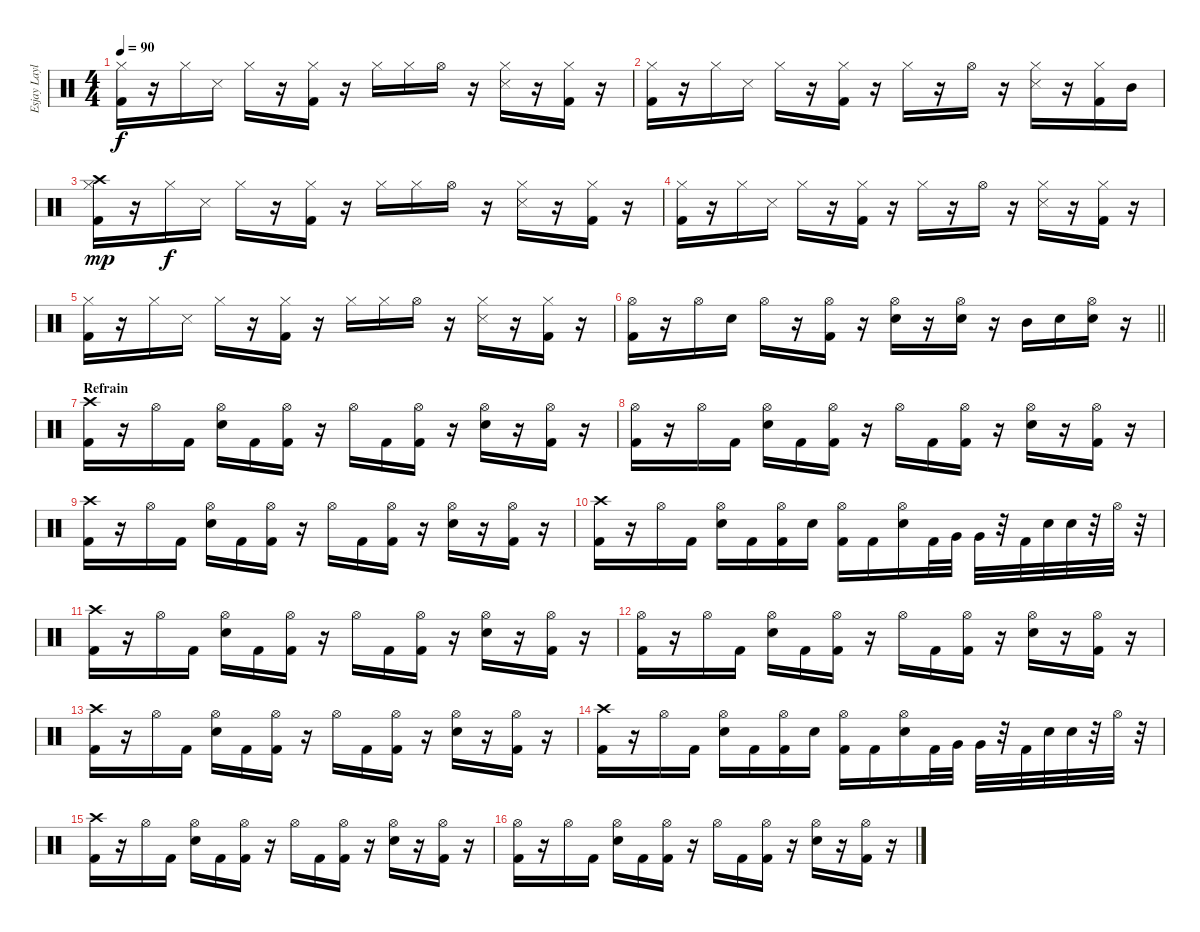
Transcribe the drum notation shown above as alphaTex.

\track ("Esjay Laylo's Drums" "Esjay Layl") {instrument percussion}
\staff {score}
\articulation defaults
\ts (4 4)
\tempo 90
\clef neutral
\ks c
("Hi-Hat (closed)" "Kick (hit) 2").16{dy f} r.16 "Hi-Hat (closed)".16 "Snare (side stick) 3".16 "Hi-Hat (closed)".16 r.16 ("Hi-Hat (closed)" "Kick (hit) 2").16 r.16 "Hi-Hat (closed)".16 "Hi-Hat (closed)".16 "Hi-Hat (open)".16 r.16 ("Hi-Hat (closed)" "Snare (side stick) 3").16 r.16 ("Hi-Hat (closed)" "Kick (hit) 2").16 r.16 |
("Hi-Hat (closed)" "Kick (hit) 2").16 r.16 "Hi-Hat (closed)".16 "Snare (side stick) 3".16 "Hi-Hat (closed)".16 r.16 ("Hi-Hat (closed)" "Kick (hit) 2").16 r.16 "Hi-Hat (closed)".16 r.16 "Hi-Hat (open)".16 r.16 ("Hi-Hat (closed)" "Snare (side stick) 3").16 r.16 ("Hi-Hat (closed)" "Kick (hit) 2").16 "Mid Tom (hit)".16 |
("Hi-Hat (closed)" "Kick (hit) 2" "Crash high (hit)").16{dy mp} r.16 "Hi-Hat (closed)".16{dy f} "Snare (side stick) 3".16 "Hi-Hat (closed)".16 r.16 ("Hi-Hat (closed)" "Kick (hit) 2").16 r.16 "Hi-Hat (closed)".16 "Hi-Hat (closed)".16 "Hi-Hat (open)".16 r.16 ("Hi-Hat (closed)" "Snare (side stick) 3").16 r.16 ("Hi-Hat (closed)" "Kick (hit) 2").16 r.16 |
("Hi-Hat (closed)" "Kick (hit) 2").16 r.16 "Hi-Hat (closed)".16 "Snare (side stick) 3".16 "Hi-Hat (closed)".16 r.16 ("Hi-Hat (closed)" "Kick (hit) 2").16 r.16 "Hi-Hat (closed)".16 r.16 "Hi-Hat (open)".16 r.16 ("Hi-Hat (closed)" "Snare (side stick) 3").16 r.16 ("Hi-Hat (closed)" "Kick (hit) 2").16 r.16 |
("Hi-Hat (closed)" "Kick (hit) 2").16 r.16 "Hi-Hat (closed)".16 "Snare (side stick) 3".16 "Hi-Hat (closed)".16 r.16 ("Hi-Hat (closed)" "Kick (hit) 2").16 r.16 "Hi-Hat (closed)".16 "Hi-Hat (closed)".16 "Hi-Hat (open)".16 r.16 ("Hi-Hat (closed)" "Snare (side stick) 3").16 r.16 ("Hi-Hat (closed)" "Kick (hit) 2").16 r.16 |
\barLineRight lightlight
("Hi-Hat (open)" "Kick (hit) 2").16 r.16 "Hi-Hat (open)".16 "Snare (hit) 2".16 "Hi-Hat (open)".16 r.16 ("Hi-Hat (open)" "Kick (hit) 2").16 r.16 ("Hi-Hat (open)" "Snare (hit) 2").16 r.16 ("Hi-Hat (open)" "Snare (hit) 2").16 r.16 "Mid Tom (hit)".16 "Snare (hit) 2".16 ("Hi-Hat (open)" "Snare (hit) 2").16 r.16 |
\section ("" "Refrain")
("Crash high (hit)" "Kick (hit) 2").16 r.16 "Hi-Hat (open)".16 "Kick (hit) 2".16 ("Hi-Hat (open)" "Snare (hit) 2").16 "Kick (hit) 2".16 ("Hi-Hat (open)" "Kick (hit) 2").16 r.16 "Hi-Hat (open)".16 "Kick (hit) 2".16 ("Hi-Hat (open)" "Kick (hit) 2").16 r.16 ("Hi-Hat (open)" "Snare (hit) 2").16 r.16 ("Hi-Hat (open)" "Kick (hit) 2").16 r.16 |
("Hi-Hat (open)" "Kick (hit) 2").16 r.16 "Hi-Hat (open)".16 "Kick (hit) 2".16 ("Hi-Hat (open)" "Snare (hit) 2").16 "Kick (hit) 2".16 ("Hi-Hat (open)" "Kick (hit) 2").16 r.16 "Hi-Hat (open)".16 "Kick (hit) 2".16 ("Hi-Hat (open)" "Kick (hit) 2").16 r.16 ("Hi-Hat (open)" "Snare (hit) 2").16 r.16 ("Hi-Hat (open)" "Kick (hit) 2").16 r.16 |
("Crash high (hit)" "Kick (hit) 2").16 r.16 "Hi-Hat (open)".16 "Kick (hit) 2".16 ("Hi-Hat (open)" "Snare (hit) 2").16 "Kick (hit) 2".16 ("Hi-Hat (open)" "Kick (hit) 2").16 r.16 "Hi-Hat (open)".16 "Kick (hit) 2".16 ("Hi-Hat (open)" "Kick (hit) 2").16 r.16 ("Hi-Hat (open)" "Snare (hit) 2").16 r.16 ("Hi-Hat (open)" "Kick (hit) 2").16 r.16 |
("Crash high (hit)" "Kick (hit) 2").16 r.16 "Hi-Hat (open)".16 "Kick (hit) 2".16 ("Hi-Hat (open)" "Snare (hit) 2").16 "Kick (hit) 2".16 ("Hi-Hat (open)" "Kick (hit) 2").16 "Snare (hit) 2".16 ("Hi-Hat (open)" "Kick (hit) 2").16 "Kick (hit) 2".16 ("Hi-Hat (open)" "Snare (hit) 2").16 "Kick (hit) 2".32 "Very Low Tom (hit)".32 "Very Low Tom (hit)".32 r.32 "Kick (hit) 2".32 "Snare (hit) 2".32 "Snare (hit) 2".32 r.32 "Hi-Hat (open)".32 r.32 |
("Crash high (hit)" "Kick (hit) 2").16 r.16 "Hi-Hat (open)".16 "Kick (hit) 2".16 ("Hi-Hat (open)" "Snare (hit) 2").16 "Kick (hit) 2".16 ("Hi-Hat (open)" "Kick (hit) 2").16 r.16 "Hi-Hat (open)".16 "Kick (hit) 2".16 ("Hi-Hat (open)" "Kick (hit) 2").16 r.16 ("Hi-Hat (open)" "Snare (hit) 2").16 r.16 ("Hi-Hat (open)" "Kick (hit) 2").16 r.16 |
("Hi-Hat (open)" "Kick (hit) 2").16 r.16 "Hi-Hat (open)".16 "Kick (hit) 2".16 ("Hi-Hat (open)" "Snare (hit) 2").16 "Kick (hit) 2".16 ("Hi-Hat (open)" "Kick (hit) 2").16 r.16 "Hi-Hat (open)".16 "Kick (hit) 2".16 ("Hi-Hat (open)" "Kick (hit) 2").16 r.16 ("Hi-Hat (open)" "Snare (hit) 2").16 r.16 ("Hi-Hat (open)" "Kick (hit) 2").16 r.16 |
("Crash high (hit)" "Kick (hit) 2").16 r.16 "Hi-Hat (open)".16 "Kick (hit) 2".16 ("Hi-Hat (open)" "Snare (hit) 2").16 "Kick (hit) 2".16 ("Hi-Hat (open)" "Kick (hit) 2").16 r.16 "Hi-Hat (open)".16 "Kick (hit) 2".16 ("Hi-Hat (open)" "Kick (hit) 2").16 r.16 ("Hi-Hat (open)" "Snare (hit) 2").16 r.16 ("Hi-Hat (open)" "Kick (hit) 2").16 r.16 |
("Crash high (hit)" "Kick (hit) 2").16 r.16 "Hi-Hat (open)".16 "Kick (hit) 2".16 ("Hi-Hat (open)" "Snare (hit) 2").16 "Kick (hit) 2".16 ("Hi-Hat (open)" "Kick (hit) 2").16 "Snare (hit) 2".16 ("Hi-Hat (open)" "Kick (hit) 2").16 "Kick (hit) 2".16 ("Hi-Hat (open)" "Snare (hit) 2").16 "Kick (hit) 2".32 "Very Low Tom (hit)".32 "Very Low Tom (hit)".32 r.32 "Kick (hit) 2".32 "Snare (hit) 2".32 "Snare (hit) 2".32 r.32 "Hi-Hat (open)".32 r.32 |
("Crash high (hit)" "Kick (hit) 2").16 r.16 "Hi-Hat (open)".16 "Kick (hit) 2".16 ("Hi-Hat (open)" "Snare (hit) 2").16 "Kick (hit) 2".16 ("Hi-Hat (open)" "Kick (hit) 2").16 r.16 "Hi-Hat (open)".16 "Kick (hit) 2".16 ("Hi-Hat (open)" "Kick (hit) 2").16 r.16 ("Hi-Hat (open)" "Snare (hit) 2").16 r.16 ("Hi-Hat (open)" "Kick (hit) 2").16 r.16 |
("Hi-Hat (open)" "Kick (hit) 2").16 r.16 "Hi-Hat (open)".16 "Kick (hit) 2".16 ("Hi-Hat (open)" "Snare (hit) 2").16 "Kick (hit) 2".16 ("Hi-Hat (open)" "Kick (hit) 2").16 r.16 "Hi-Hat (open)".16 "Kick (hit) 2".16 ("Hi-Hat (open)" "Kick (hit) 2").16 r.16 ("Hi-Hat (open)" "Snare (hit) 2").16 r.16 ("Hi-Hat (open)" "Kick (hit) 2").16 r.16
